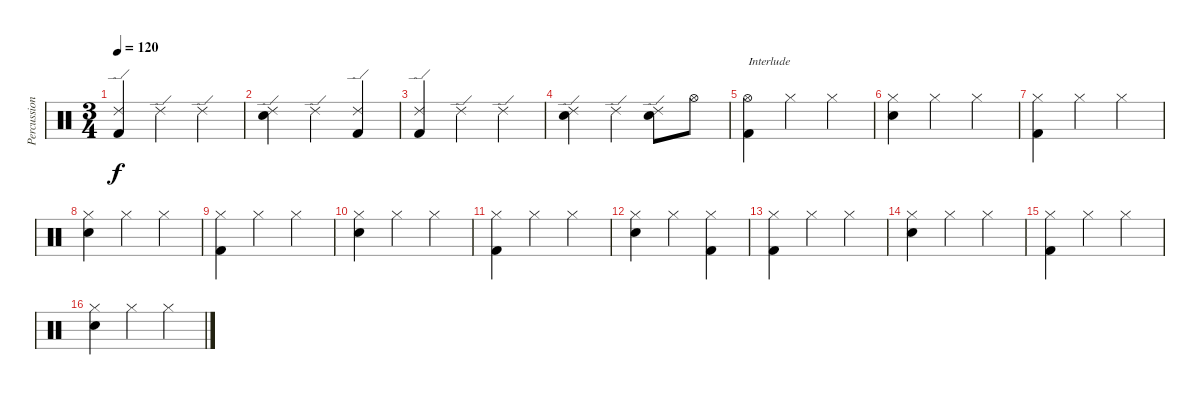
\track ("Percussion" "Percussion") {instrument percussion}
\staff {score}
\articulation defaults
\ts (3 4)
\tempo 120
\clef neutral
\ks c
("Kick (hit) 2" "Ride (edge) 2").4{dy f} "Ride (edge) 2".4 "Ride (edge) 2".4 |
("Snare (hit) 2" "Ride (edge) 2").4 "Ride (edge) 2".4 ("Kick (hit) 2" "Ride (edge) 2").4 |
("Kick (hit) 2" "Ride (edge) 2").4 "Ride (edge) 2".4 "Ride (edge) 2".4 |
("Snare (hit) 2" "Ride (edge) 2").4 "Ride (edge) 2".4 ("Snare (hit) 2" "Ride (edge) 2").8 "Hi-Hat (open)".8 |
("Kick (hit) 2" "Hi-Hat (open)").4{txt "Interlude"} "Hi-Hat (closed)".4 "Hi-Hat (closed)".4 |
("Snare (hit) 2" "Hi-Hat (closed)").4 "Hi-Hat (closed)".4 "Hi-Hat (closed)".4 |
("Kick (hit) 2" "Hi-Hat (closed)").4 "Hi-Hat (closed)".4 "Hi-Hat (closed)".4 |
("Snare (hit) 2" "Hi-Hat (closed)").4 "Hi-Hat (closed)".4 "Hi-Hat (closed)".4 |
("Kick (hit) 2" "Hi-Hat (closed)").4 "Hi-Hat (closed)".4 "Hi-Hat (closed)".4 |
("Snare (hit) 2" "Hi-Hat (closed)").4 "Hi-Hat (closed)".4 "Hi-Hat (closed)".4 |
("Kick (hit) 2" "Hi-Hat (closed)").4 "Hi-Hat (closed)".4 "Hi-Hat (closed)".4 |
("Snare (hit) 2" "Hi-Hat (closed)").4 "Hi-Hat (closed)".4 ("Kick (hit) 2" "Hi-Hat (closed)").4 |
("Kick (hit) 2" "Hi-Hat (closed)").4 "Hi-Hat (closed)".4 "Hi-Hat (closed)".4 |
("Snare (hit) 2" "Hi-Hat (closed)").4 "Hi-Hat (closed)".4 "Hi-Hat (closed)".4 |
("Kick (hit) 2" "Hi-Hat (closed)").4 "Hi-Hat (closed)".4 "Hi-Hat (closed)".4 |
("Snare (hit) 2" "Hi-Hat (closed)").4 "Hi-Hat (closed)".4 "Hi-Hat (closed)".4
